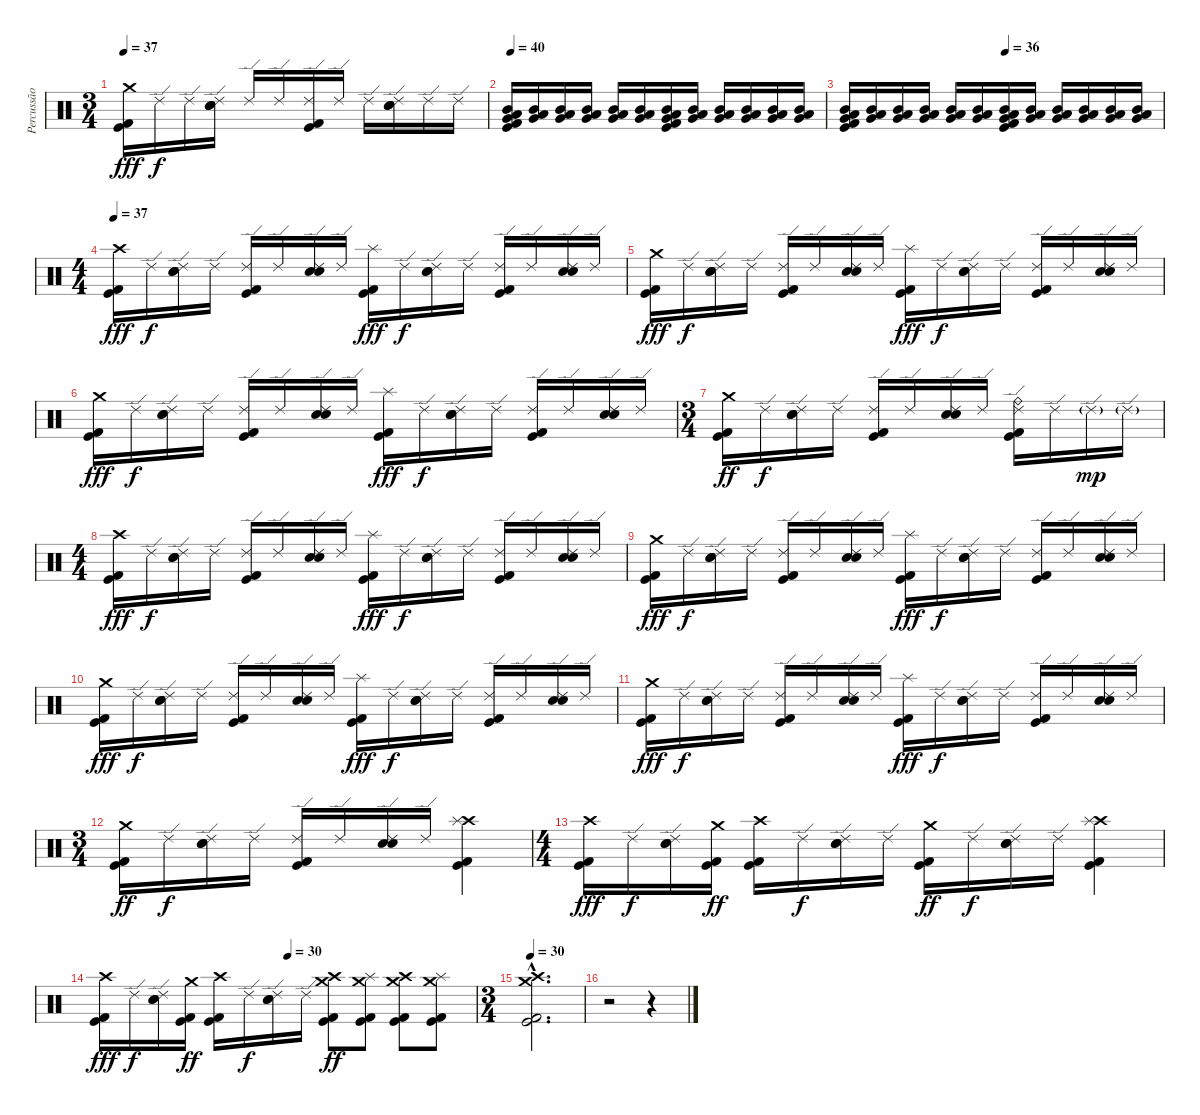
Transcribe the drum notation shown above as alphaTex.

\track ("Percussão" "Percussão") {instrument percussion}
\staff {score}
\articulation defaults
\ts (3 4)
\tempo 37
\clef neutral
\ks c
("Crash medium (hit)" "Kick (hit) 2" "Kick (hit)").16{dy fff} "Ride (edge) 2".16{dy f} "Ride (edge) 2".16 ("Ride (edge) 2" "Electric Snare (hit)" "Snare (hit) 2").16 "Ride (edge) 2".16 "Ride (edge) 2".16 ("Ride (edge) 2" "Kick (hit) 2" "Kick (hit)").16 "Ride (edge) 2".16 "Ride (edge) 2".16 ("Ride (edge) 2" "Electric Snare (hit)" "Snare (hit) 2").16 "Ride (edge) 2".16 "Ride (edge) 2".16 |
\tempo 40
("Low Tom (hit)" "Mid Tom (hit)" "Very Low Tom (hit)" "Kick (hit) 2" "Kick (hit)").16 ("Low Tom (hit)" "Mid Tom (hit)" "Very Low Tom (hit)").16 ("Low Tom (hit)" "Mid Tom (hit)" "Very Low Tom (hit)").16 ("Low Tom (hit)" "Mid Tom (hit)" "Very Low Tom (hit)").16 ("Low Tom (hit)" "Mid Tom (hit)" "Very Low Tom (hit)").16 ("Low Tom (hit)" "Mid Tom (hit)" "Very Low Tom (hit)").16 ("Low Tom (hit)" "Mid Tom (hit)" "Very Low Tom (hit)" "Kick (hit) 2" "Kick (hit)").16 ("Low Tom (hit)" "Mid Tom (hit)" "Very Low Tom (hit)").16 ("Low Tom (hit)" "Mid Tom (hit)" "Very Low Tom (hit)").16 ("Low Tom (hit)" "Mid Tom (hit)" "Very Low Tom (hit)").16 ("Low Tom (hit)" "Mid Tom (hit)" "Very Low Tom (hit)").16 ("Low Tom (hit)" "Mid Tom (hit)" "Very Low Tom (hit)").16 |
\tempo (36 0.5)
("Low Tom (hit)" "Mid Tom (hit)" "Very Low Tom (hit)" "Kick (hit) 2" "Kick (hit)").16 ("Low Tom (hit)" "Mid Tom (hit)" "Very Low Tom (hit)").16 ("Low Tom (hit)" "Mid Tom (hit)" "Very Low Tom (hit)").16 ("Low Tom (hit)" "Mid Tom (hit)" "Very Low Tom (hit)").16 ("Low Tom (hit)" "Mid Tom (hit)" "Very Low Tom (hit)").16 ("Low Tom (hit)" "Mid Tom (hit)" "Very Low Tom (hit)").16 ("Low Tom (hit)" "Mid Tom (hit)" "Very Low Tom (hit)" "Kick (hit) 2" "Kick (hit)").16 ("Low Tom (hit)" "Mid Tom (hit)" "Very Low Tom (hit)").16 ("Low Tom (hit)" "Mid Tom (hit)" "Very Low Tom (hit)").16 ("Low Tom (hit)" "Mid Tom (hit)" "Very Low Tom (hit)").16 ("Low Tom (hit)" "Mid Tom (hit)" "Very Low Tom (hit)").16 ("Low Tom (hit)" "Mid Tom (hit)" "Very Low Tom (hit)").16 |
\ts (4 4)
\tempo 37
("Crash high (hit)" "Kick (hit) 2" "Kick (hit)").16{dy fff} "Ride (edge) 2".16{dy f} ("Ride (edge) 2" "Electric Snare (hit)" "Snare (hit) 2").16 "Ride (edge) 2".16 ("Ride (edge) 2" "Kick (hit) 2" "Kick (hit)").16 "Ride (edge) 2".16 ("Ride (edge) 2" "Electric Snare (hit)" "Snare (hit) 2").16 "Ride (edge) 2".16 ("Splash (hit)" "Kick (hit) 2" "Kick (hit)").16{dy fff} "Ride (edge) 2".16{dy f} ("Ride (edge) 2" "Electric Snare (hit)" "Snare (hit) 2").16 "Ride (edge) 2".16 ("Ride (edge) 2" "Kick (hit) 2" "Kick (hit)").16 "Ride (edge) 2".16 ("Ride (edge) 2" "Electric Snare (hit)" "Snare (hit) 2").16 "Ride (edge) 2".16 |
("Crash medium (hit)" "Kick (hit) 2" "Kick (hit)").16{dy fff} "Ride (edge) 2".16{dy f} ("Ride (edge) 2" "Electric Snare (hit)" "Snare (hit) 2").16 "Ride (edge) 2".16 ("Ride (edge) 2" "Kick (hit) 2" "Kick (hit)").16 "Ride (edge) 2".16 ("Ride (edge) 2" "Electric Snare (hit)" "Snare (hit) 2").16 "Ride (edge) 2".16 ("Splash (hit)" "Kick (hit) 2" "Kick (hit)").16{dy fff} "Ride (edge) 2".16{dy f} ("Ride (edge) 2" "Electric Snare (hit)" "Snare (hit) 2").16 "Ride (edge) 2".16 ("Ride (edge) 2" "Kick (hit) 2" "Kick (hit)").16 "Ride (edge) 2".16 ("Ride (edge) 2" "Electric Snare (hit)" "Snare (hit) 2").16 "Ride (edge) 2".16 |
("Crash medium (hit)" "Kick (hit) 2" "Kick (hit)").16{dy fff} "Ride (edge) 2".16{dy f} ("Ride (edge) 2" "Electric Snare (hit)" "Snare (hit) 2").16 "Ride (edge) 2".16 ("Ride (edge) 2" "Kick (hit) 2" "Kick (hit)").16 "Ride (edge) 2".16 ("Ride (edge) 2" "Electric Snare (hit)" "Snare (hit) 2").16 "Ride (edge) 2".16 ("Splash (hit)" "Kick (hit) 2" "Kick (hit)").16{dy fff} "Ride (edge) 2".16{dy f} ("Ride (edge) 2" "Electric Snare (hit)" "Snare (hit) 2").16 "Ride (edge) 2".16 ("Ride (edge) 2" "Kick (hit) 2" "Kick (hit)").16 "Ride (edge) 2".16 ("Ride (edge) 2" "Electric Snare (hit)" "Snare (hit) 2").16 "Ride (edge) 2".16 |
\ts (3 4)
("Crash medium (hit)" "Kick (hit) 2" "Kick (hit)").16{dy ff} "Ride (edge) 2".16{dy f} ("Ride (edge) 2" "Electric Snare (hit)" "Snare (hit) 2").16 "Ride (edge) 2".16 ("Ride (edge) 2" "Kick (hit) 2" "Kick (hit)").16 "Ride (edge) 2".16 ("Ride (edge) 2" "Electric Snare (hit)" "Snare (hit) 2").16 "Ride (edge) 2".16 ("Ride (bell)" "Ride (edge) 2" "Kick (hit) 2" "Kick (hit)").16 "Ride (edge) 2".16 "Ride (edge) 2"{g}.16{dy mp} "Ride (edge) 2"{g}.16 |
\ts (4 4)
("Crash high (hit)" "Kick (hit) 2" "Kick (hit)").16{dy fff} "Ride (edge) 2".16{dy f} ("Ride (edge) 2" "Electric Snare (hit)" "Snare (hit) 2").16 "Ride (edge) 2".16 ("Ride (edge) 2" "Kick (hit) 2" "Kick (hit)").16 "Ride (edge) 2".16 ("Ride (edge) 2" "Electric Snare (hit)" "Snare (hit) 2").16 "Ride (edge) 2".16 ("Splash (hit)" "Kick (hit) 2" "Kick (hit)").16{dy fff} "Ride (edge) 2".16{dy f} ("Ride (edge) 2" "Electric Snare (hit)" "Snare (hit) 2").16 "Ride (edge) 2".16 ("Ride (edge) 2" "Kick (hit) 2" "Kick (hit)").16 "Ride (edge) 2".16 ("Ride (edge) 2" "Electric Snare (hit)" "Snare (hit) 2").16 "Ride (edge) 2".16 |
("Crash medium (hit)" "Kick (hit) 2" "Kick (hit)").16{dy fff} "Ride (edge) 2".16{dy f} ("Ride (edge) 2" "Electric Snare (hit)" "Snare (hit) 2").16 "Ride (edge) 2".16 ("Ride (edge) 2" "Kick (hit) 2" "Kick (hit)").16 "Ride (edge) 2".16 ("Ride (edge) 2" "Electric Snare (hit)" "Snare (hit) 2").16 "Ride (edge) 2".16 ("Splash (hit)" "Kick (hit) 2" "Kick (hit)").16{dy fff} "Ride (edge) 2".16{dy f} ("Ride (edge) 2" "Electric Snare (hit)" "Snare (hit) 2").16 "Ride (edge) 2".16 ("Ride (edge) 2" "Kick (hit) 2" "Kick (hit)").16 "Ride (edge) 2".16 ("Ride (edge) 2" "Electric Snare (hit)" "Snare (hit) 2").16 "Ride (edge) 2".16 |
("Crash medium (hit)" "Kick (hit) 2" "Kick (hit)").16{dy fff} "Ride (edge) 2".16{dy f} ("Ride (edge) 2" "Electric Snare (hit)" "Snare (hit) 2").16 "Ride (edge) 2".16 ("Ride (edge) 2" "Kick (hit) 2" "Kick (hit)").16 "Ride (edge) 2".16 ("Ride (edge) 2" "Electric Snare (hit)" "Snare (hit) 2").16 "Ride (edge) 2".16 ("Splash (hit)" "Kick (hit) 2" "Kick (hit)").16{dy fff} "Ride (edge) 2".16{dy f} ("Ride (edge) 2" "Electric Snare (hit)" "Snare (hit) 2").16 "Ride (edge) 2".16 ("Ride (edge) 2" "Kick (hit) 2" "Kick (hit)").16 "Ride (edge) 2".16 ("Ride (edge) 2" "Electric Snare (hit)" "Snare (hit) 2").16 "Ride (edge) 2".16 |
("Crash medium (hit)" "Kick (hit) 2" "Kick (hit)").16{dy fff} "Ride (edge) 2".16{dy f} ("Ride (edge) 2" "Electric Snare (hit)" "Snare (hit) 2").16 "Ride (edge) 2".16 ("Ride (edge) 2" "Kick (hit) 2" "Kick (hit)").16 "Ride (edge) 2".16 ("Ride (edge) 2" "Electric Snare (hit)" "Snare (hit) 2").16 "Ride (edge) 2".16 ("Splash (hit)" "Kick (hit) 2" "Kick (hit)").16{dy fff} "Ride (edge) 2".16{dy f} ("Ride (edge) 2" "Electric Snare (hit)" "Snare (hit) 2").16 "Ride (edge) 2".16 ("Ride (edge) 2" "Kick (hit) 2" "Kick (hit)").16 "Ride (edge) 2".16 ("Ride (edge) 2" "Electric Snare (hit)" "Snare (hit) 2").16 "Ride (edge) 2".16 |
\ts (3 4)
("Crash medium (hit)" "Kick (hit) 2" "Kick (hit)").16{dy ff} "Ride (edge) 2".16{dy f} ("Ride (edge) 2" "Electric Snare (hit)" "Snare (hit) 2").16 "Ride (edge) 2".16 ("Ride (edge) 2" "Kick (hit) 2" "Kick (hit)").16 "Ride (edge) 2".16 ("Ride (edge) 2" "Electric Snare (hit)" "Snare (hit) 2").16 "Ride (edge) 2".16 ("Crash high (hit)" "Splash (hit)" "Kick (hit) 2" "Kick (hit)").4 |
\ts (4 4)
("Crash high (hit)" "Kick (hit) 2" "Kick (hit)").16{dy fff} "Ride (edge) 2".16{dy f} ("Ride (edge) 2" "Electric Snare (hit)" "Snare (hit) 2").16 ("Crash medium (hit)" "Kick (hit) 2" "Kick (hit)").16{dy ff} ("Crash high (hit)" "Kick (hit) 2" "Kick (hit)").16 "Ride (edge) 2".16{dy f} ("Ride (edge) 2" "Electric Snare (hit)" "Snare (hit) 2").16 "Ride (edge) 2".16 ("Crash medium (hit)" "Kick (hit) 2" "Kick (hit)").16{dy ff} "Ride (edge) 2".16{dy f} ("Ride (edge) 2" "Electric Snare (hit)" "Snare (hit) 2").16 "Ride (edge) 2".16 ("Crash high (hit)" "Splash (hit)" "Kick (hit) 2" "Kick (hit)").4 |
\tempo (30 0.5)
("Crash high (hit)" "Kick (hit) 2" "Kick (hit)").16{dy fff} "Ride (edge) 2".16{dy f} ("Ride (edge) 2" "Electric Snare (hit)" "Snare (hit) 2").16 ("Crash medium (hit)" "Kick (hit) 2" "Kick (hit)").16{dy ff} ("Crash high (hit)" "Kick (hit) 2" "Kick (hit)").16 "Ride (edge) 2".16{dy f} ("Ride (edge) 2" "Electric Snare (hit)" "Snare (hit) 2").16 "Ride (edge) 2".16 ("Crash medium (hit)" "Crash high (hit)" "Kick (hit) 2" "Kick (hit)").8{dy ff} ("Crash medium (hit)" "Splash (hit)" "Kick (hit) 2" "Kick (hit)").8 ("Crash medium (hit)" "Crash high (hit)" "Kick (hit) 2" "Kick (hit)").8 ("Crash medium (hit)" "Splash (hit)" "Kick (hit) 2" "Kick (hit)").8 |
\ts (3 4)
\tempo 30
("Crash high (hit)"{hac} "Crash medium (hit)"{hac} "Kick (hit) 2"{hac} "Kick (hit)"{hac}).2{d} |
r.2 r.4
